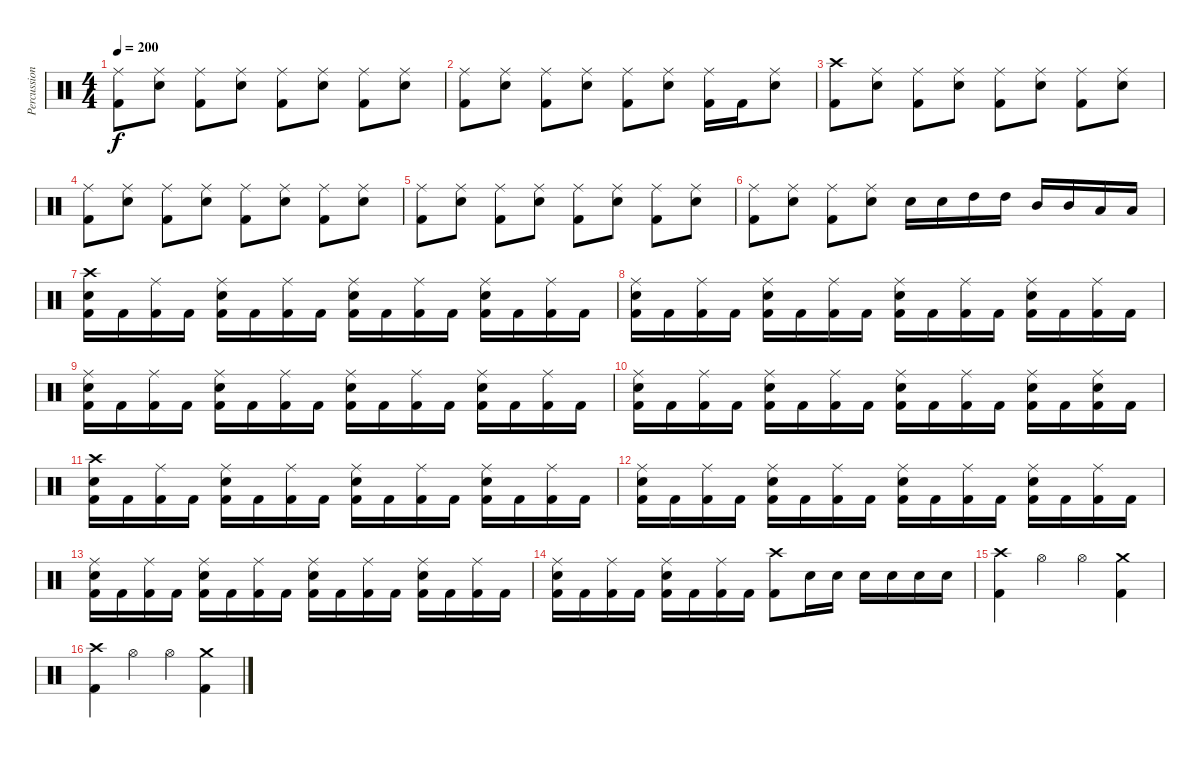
\track ("Percussions" "Percussion") {instrument percussion}
\staff {score}
\articulation defaults
\ts (4 4)
\tempo 200
\clef neutral
\ks c
("Ride (middle)" "Kick (hit) 2").8{dy f} ("Ride (middle)" "Electric Snare (hit)").8 ("Ride (middle)" "Kick (hit) 2").8 ("Ride (middle)" "Electric Snare (hit)").8 ("Ride (middle)" "Kick (hit) 2").8 ("Ride (middle)" "Electric Snare (hit)").8 ("Ride (middle)" "Kick (hit) 2").8 ("Ride (middle)" "Electric Snare (hit)").8 |
("Ride (middle)" "Kick (hit) 2").8 ("Ride (middle)" "Electric Snare (hit)").8 ("Ride (middle)" "Kick (hit) 2").8 ("Ride (middle)" "Electric Snare (hit)").8 ("Ride (middle)" "Kick (hit) 2").8 ("Ride (middle)" "Electric Snare (hit)").8 ("Ride (middle)" "Kick (hit) 2").16 "Kick (hit) 2".16 ("Ride (middle)" "Electric Snare (hit)").8 |
("Crash high (hit)" "Kick (hit) 2").8 ("Ride (middle)" "Electric Snare (hit)").8 ("Ride (middle)" "Kick (hit) 2").8 ("Ride (middle)" "Electric Snare (hit)").8 ("Ride (middle)" "Kick (hit) 2").8 ("Ride (middle)" "Electric Snare (hit)").8 ("Ride (middle)" "Kick (hit) 2").8 ("Ride (middle)" "Electric Snare (hit)").8 |
("Ride (middle)" "Kick (hit) 2").8 ("Ride (middle)" "Electric Snare (hit)").8 ("Ride (middle)" "Kick (hit) 2").8 ("Ride (middle)" "Electric Snare (hit)").8 ("Ride (middle)" "Kick (hit) 2").8 ("Ride (middle)" "Electric Snare (hit)").8 ("Ride (middle)" "Kick (hit) 2").8 ("Ride (middle)" "Electric Snare (hit)").8 |
("Ride (middle)" "Kick (hit) 2").8 ("Ride (middle)" "Electric Snare (hit)").8 ("Ride (middle)" "Kick (hit) 2").8 ("Ride (middle)" "Electric Snare (hit)").8 ("Ride (middle)" "Kick (hit) 2").8 ("Ride (middle)" "Electric Snare (hit)").8 ("Ride (middle)" "Kick (hit) 2").8 ("Ride (middle)" "Electric Snare (hit)").8 |
("Ride (middle)" "Kick (hit) 2").8 ("Ride (middle)" "Electric Snare (hit)").8 ("Ride (middle)" "Kick (hit) 2").8 ("Ride (middle)" "Electric Snare (hit)").8 "Electric Snare (hit)".16 "Electric Snare (hit)".16 "High Tom (hit)".16 "High Tom (hit)".16 "Mid Tom (hit)".16 "Mid Tom (hit)".16 "Low Tom (hit)".16 "Low Tom (hit)".16 |
("Crash high (hit)" "Electric Snare (hit)" "Kick (hit) 2").16 "Kick (hit) 2".16 ("Ride (middle)" "Kick (hit) 2").16 "Kick (hit) 2".16 ("Ride (middle)" "Electric Snare (hit)" "Kick (hit) 2").16 "Kick (hit) 2".16 ("Ride (middle)" "Kick (hit) 2").16 "Kick (hit) 2".16 ("Ride (middle)" "Electric Snare (hit)" "Kick (hit) 2").16 "Kick (hit) 2".16 ("Ride (middle)" "Kick (hit) 2").16 "Kick (hit) 2".16 ("Ride (middle)" "Electric Snare (hit)" "Kick (hit) 2").16 "Kick (hit) 2".16 ("Ride (middle)" "Kick (hit) 2").16 "Kick (hit) 2".16 |
("Ride (middle)" "Electric Snare (hit)" "Kick (hit) 2").16 "Kick (hit) 2".16 ("Ride (middle)" "Kick (hit) 2").16 "Kick (hit) 2".16 ("Ride (middle)" "Electric Snare (hit)" "Kick (hit) 2").16 "Kick (hit) 2".16 ("Ride (middle)" "Kick (hit) 2").16 "Kick (hit) 2".16 ("Ride (middle)" "Electric Snare (hit)" "Kick (hit) 2").16 "Kick (hit) 2".16 ("Ride (middle)" "Kick (hit) 2").16 "Kick (hit) 2".16 ("Ride (middle)" "Electric Snare (hit)" "Kick (hit) 2").16 "Kick (hit) 2".16 ("Ride (middle)" "Kick (hit) 2").16 "Kick (hit) 2".16 |
("Ride (middle)" "Electric Snare (hit)" "Kick (hit) 2").16 "Kick (hit) 2".16 ("Ride (middle)" "Kick (hit) 2").16 "Kick (hit) 2".16 ("Ride (middle)" "Electric Snare (hit)" "Kick (hit) 2").16 "Kick (hit) 2".16 ("Ride (middle)" "Kick (hit) 2").16 "Kick (hit) 2".16 ("Ride (middle)" "Electric Snare (hit)" "Kick (hit) 2").16 "Kick (hit) 2".16 ("Ride (middle)" "Kick (hit) 2").16 "Kick (hit) 2".16 ("Ride (middle)" "Electric Snare (hit)" "Kick (hit) 2").16 "Kick (hit) 2".16 ("Ride (middle)" "Kick (hit) 2").16 "Kick (hit) 2".16 |
("Ride (middle)" "Electric Snare (hit)" "Kick (hit) 2").16 "Kick (hit) 2".16 ("Ride (middle)" "Kick (hit) 2").16 "Kick (hit) 2".16 ("Ride (middle)" "Electric Snare (hit)" "Kick (hit) 2").16 "Kick (hit) 2".16 ("Ride (middle)" "Kick (hit) 2").16 "Kick (hit) 2".16 ("Ride (middle)" "Electric Snare (hit)" "Kick (hit) 2").16 "Kick (hit) 2".16 ("Ride (middle)" "Kick (hit) 2").16 "Kick (hit) 2".16 ("Ride (middle)" "Electric Snare (hit)" "Kick (hit) 2").16 "Kick (hit) 2".16 ("Ride (middle)" "Electric Snare (hit)" "Kick (hit) 2").16 "Kick (hit) 2".16 |
("Crash high (hit)" "Electric Snare (hit)" "Kick (hit) 2").16 "Kick (hit) 2".16 ("Ride (middle)" "Kick (hit) 2").16 "Kick (hit) 2".16 ("Ride (middle)" "Electric Snare (hit)" "Kick (hit) 2").16 "Kick (hit) 2".16 ("Ride (middle)" "Kick (hit) 2").16 "Kick (hit) 2".16 ("Ride (middle)" "Electric Snare (hit)" "Kick (hit) 2").16 "Kick (hit) 2".16 ("Ride (middle)" "Kick (hit) 2").16 "Kick (hit) 2".16 ("Ride (middle)" "Electric Snare (hit)" "Kick (hit) 2").16 "Kick (hit) 2".16 ("Ride (middle)" "Kick (hit) 2").16 "Kick (hit) 2".16 |
("Ride (middle)" "Electric Snare (hit)" "Kick (hit) 2").16 "Kick (hit) 2".16 ("Ride (middle)" "Kick (hit) 2").16 "Kick (hit) 2".16 ("Ride (middle)" "Electric Snare (hit)" "Kick (hit) 2").16 "Kick (hit) 2".16 ("Ride (middle)" "Kick (hit) 2").16 "Kick (hit) 2".16 ("Ride (middle)" "Electric Snare (hit)" "Kick (hit) 2").16 "Kick (hit) 2".16 ("Ride (middle)" "Kick (hit) 2").16 "Kick (hit) 2".16 ("Ride (middle)" "Electric Snare (hit)" "Kick (hit) 2").16 "Kick (hit) 2".16 ("Ride (middle)" "Kick (hit) 2").16 "Kick (hit) 2".16 |
("Ride (middle)" "Electric Snare (hit)" "Kick (hit) 2").16 "Kick (hit) 2".16 ("Ride (middle)" "Kick (hit) 2").16 "Kick (hit) 2".16 ("Ride (middle)" "Electric Snare (hit)" "Kick (hit) 2").16 "Kick (hit) 2".16 ("Ride (middle)" "Kick (hit) 2").16 "Kick (hit) 2".16 ("Ride (middle)" "Electric Snare (hit)" "Kick (hit) 2").16 "Kick (hit) 2".16 ("Ride (middle)" "Kick (hit) 2").16 "Kick (hit) 2".16 ("Ride (middle)" "Electric Snare (hit)" "Kick (hit) 2").16 "Kick (hit) 2".16 ("Ride (middle)" "Kick (hit) 2").16 "Kick (hit) 2".16 |
("Ride (middle)" "Electric Snare (hit)" "Kick (hit) 2").16 "Kick (hit) 2".16 ("Ride (middle)" "Kick (hit) 2").16 "Kick (hit) 2".16 ("Ride (middle)" "Electric Snare (hit)" "Kick (hit) 2").16 "Kick (hit) 2".16 ("Ride (middle)" "Kick (hit) 2").16 "Kick (hit) 2".16 ("Crash high (hit)" "Kick (hit) 2").8 "Electric Snare (hit)".16 "Electric Snare (hit)".16 "Electric Snare (hit)".16 "Electric Snare (hit)".16 "Electric Snare (hit)".16 "Electric Snare (hit)".16 |
("Crash high (hit)" "Kick (hit) 2").4 "Hi-Hat (open)".4 "Hi-Hat (open)".4 ("Crash medium (hit)" "Kick (hit) 2").4 |
("Crash high (hit)" "Kick (hit) 2").4 "Hi-Hat (open)".4 "Hi-Hat (open)".4 ("Crash medium (hit)" "Kick (hit) 2").4
